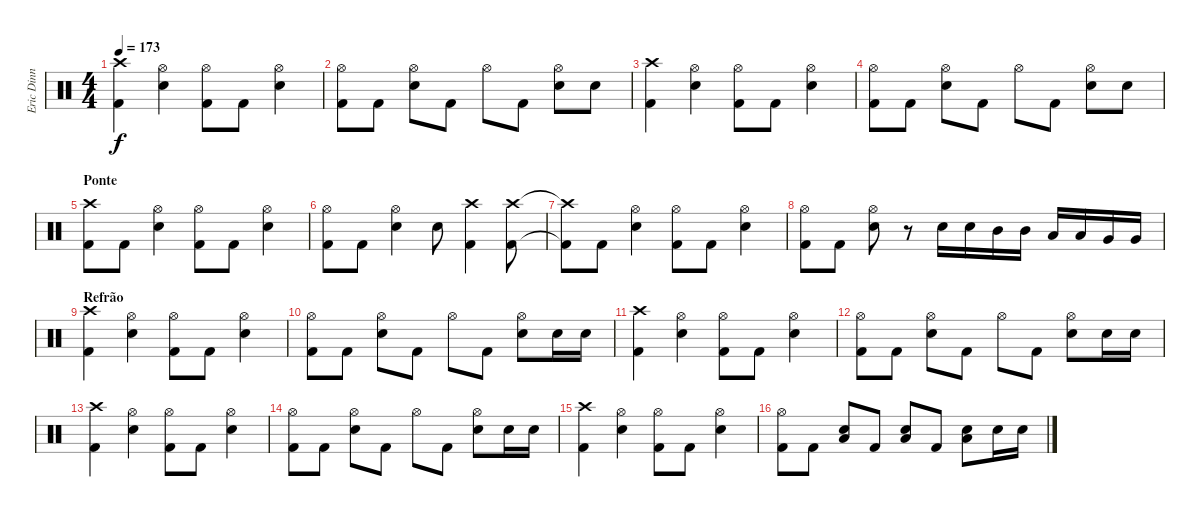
\track ("Eric Dinn" "Eric Dinn") {instrument percussion}
\staff {score}
\articulation defaults
\ts (4 4)
\tempo 173
\clef neutral
\ks c
("Crash high (hit)" "Kick (hit) 2").4{dy f} ("Hi-Hat (open)" "Snare (hit) 2").4 ("Hi-Hat (open)" "Kick (hit) 2").8 "Kick (hit) 2".8 ("Hi-Hat (open)" "Snare (hit) 2").4 |
("Hi-Hat (open)" "Kick (hit) 2").8 "Kick (hit) 2".8 ("Hi-Hat (open)" "Snare (hit) 2").8 "Kick (hit) 2".8 "Hi-Hat (open)".8 "Kick (hit) 2".8 ("Hi-Hat (open)" "Snare (hit) 2").8 "Snare (hit) 2".8 |
("Crash high (hit)" "Kick (hit) 2").4 ("Hi-Hat (open)" "Snare (hit) 2").4 ("Hi-Hat (open)" "Kick (hit) 2").8 "Kick (hit) 2".8 ("Hi-Hat (open)" "Snare (hit) 2").4 |
("Hi-Hat (open)" "Kick (hit) 2").8 "Kick (hit) 2".8 ("Hi-Hat (open)" "Snare (hit) 2").8 "Kick (hit) 2".8 "Hi-Hat (open)".8 "Kick (hit) 2".8 ("Hi-Hat (open)" "Snare (hit) 2").8 "Snare (hit) 2".8 |
\section ("" "Ponte")
("Crash high (hit)" "Kick (hit) 2").8 "Kick (hit) 2".8 ("Hi-Hat (open)" "Snare (hit) 2").4 ("Hi-Hat (open)" "Kick (hit) 2").8 "Kick (hit) 2".8 ("Hi-Hat (open)" "Snare (hit) 2").4 |
("Hi-Hat (open)" "Kick (hit) 2").8 "Kick (hit) 2".8 ("Hi-Hat (open)" "Snare (hit) 2").4 "Snare (hit) 2".8 ("Crash high (hit)" "Kick (hit) 2").4 ("Crash high (hit)" "Kick (hit) 2").8 |
("Crash high (hit)"{t} "Kick (hit) 2"{t}).8 "Kick (hit) 2".8 ("Hi-Hat (open)" "Snare (hit) 2").4 ("Hi-Hat (open)" "Kick (hit) 2").8 "Kick (hit) 2".8 ("Hi-Hat (open)" "Snare (hit) 2").4 |
("Hi-Hat (open)" "Kick (hit) 2").8 "Kick (hit) 2".8 ("Hi-Hat (open)" "Snare (hit) 2").8 r.8 "Snare (hit) 2".16 "Snare (hit) 2".16 "Mid Tom (hit)".16 "Mid Tom (hit)".16 "Low Tom (hit)".16 "Low Tom (hit)".16 "Very Low Tom (hit)".16 "Very Low Tom (hit)".16 |
\section ("" "Refrão")
("Crash high (hit)" "Kick (hit) 2").4 ("Hi-Hat (open)" "Snare (hit) 2").4 ("Hi-Hat (open)" "Kick (hit) 2").8 "Kick (hit) 2".8 ("Hi-Hat (open)" "Snare (hit) 2").4 |
("Hi-Hat (open)" "Kick (hit) 2").8 "Kick (hit) 2".8 ("Hi-Hat (open)" "Snare (hit) 2").8 "Kick (hit) 2".8 "Hi-Hat (open)".8 "Kick (hit) 2".8 ("Hi-Hat (open)" "Snare (hit) 2").8 "Snare (hit) 2".16 "Snare (hit) 2".16 |
("Crash high (hit)" "Kick (hit) 2").4 ("Hi-Hat (open)" "Snare (hit) 2").4 ("Hi-Hat (open)" "Kick (hit) 2").8 "Kick (hit) 2".8 ("Hi-Hat (open)" "Snare (hit) 2").4 |
("Hi-Hat (open)" "Kick (hit) 2").8 "Kick (hit) 2".8 ("Hi-Hat (open)" "Snare (hit) 2").8 "Kick (hit) 2".8 "Hi-Hat (open)".8 "Kick (hit) 2".8 ("Hi-Hat (open)" "Snare (hit) 2").8 "Snare (hit) 2".16 "Snare (hit) 2".16 |
("Crash high (hit)" "Kick (hit) 2").4 ("Hi-Hat (open)" "Snare (hit) 2").4 ("Hi-Hat (open)" "Kick (hit) 2").8 "Kick (hit) 2".8 ("Hi-Hat (open)" "Snare (hit) 2").4 |
("Hi-Hat (open)" "Kick (hit) 2").8 "Kick (hit) 2".8 ("Hi-Hat (open)" "Snare (hit) 2").8 "Kick (hit) 2".8 "Hi-Hat (open)".8 "Kick (hit) 2".8 ("Hi-Hat (open)" "Snare (hit) 2").8 "Snare (hit) 2".16 "Snare (hit) 2".16 |
("Crash high (hit)" "Kick (hit) 2").4 ("Hi-Hat (open)" "Snare (hit) 2").4 ("Hi-Hat (open)" "Kick (hit) 2").8 "Kick (hit) 2".8 ("Hi-Hat (open)" "Snare (hit) 2").4 |
("Hi-Hat (open)" "Kick (hit) 2").8 "Kick (hit) 2".8 ("Low Tom (hit)" "Snare (hit) 2").8 "Kick (hit) 2".8 ("Low Tom (hit)" "Snare (hit) 2").8 "Kick (hit) 2".8 ("Low Tom (hit)" "Snare (hit) 2").8 "Snare (hit) 2".16 "Snare (hit) 2".16
